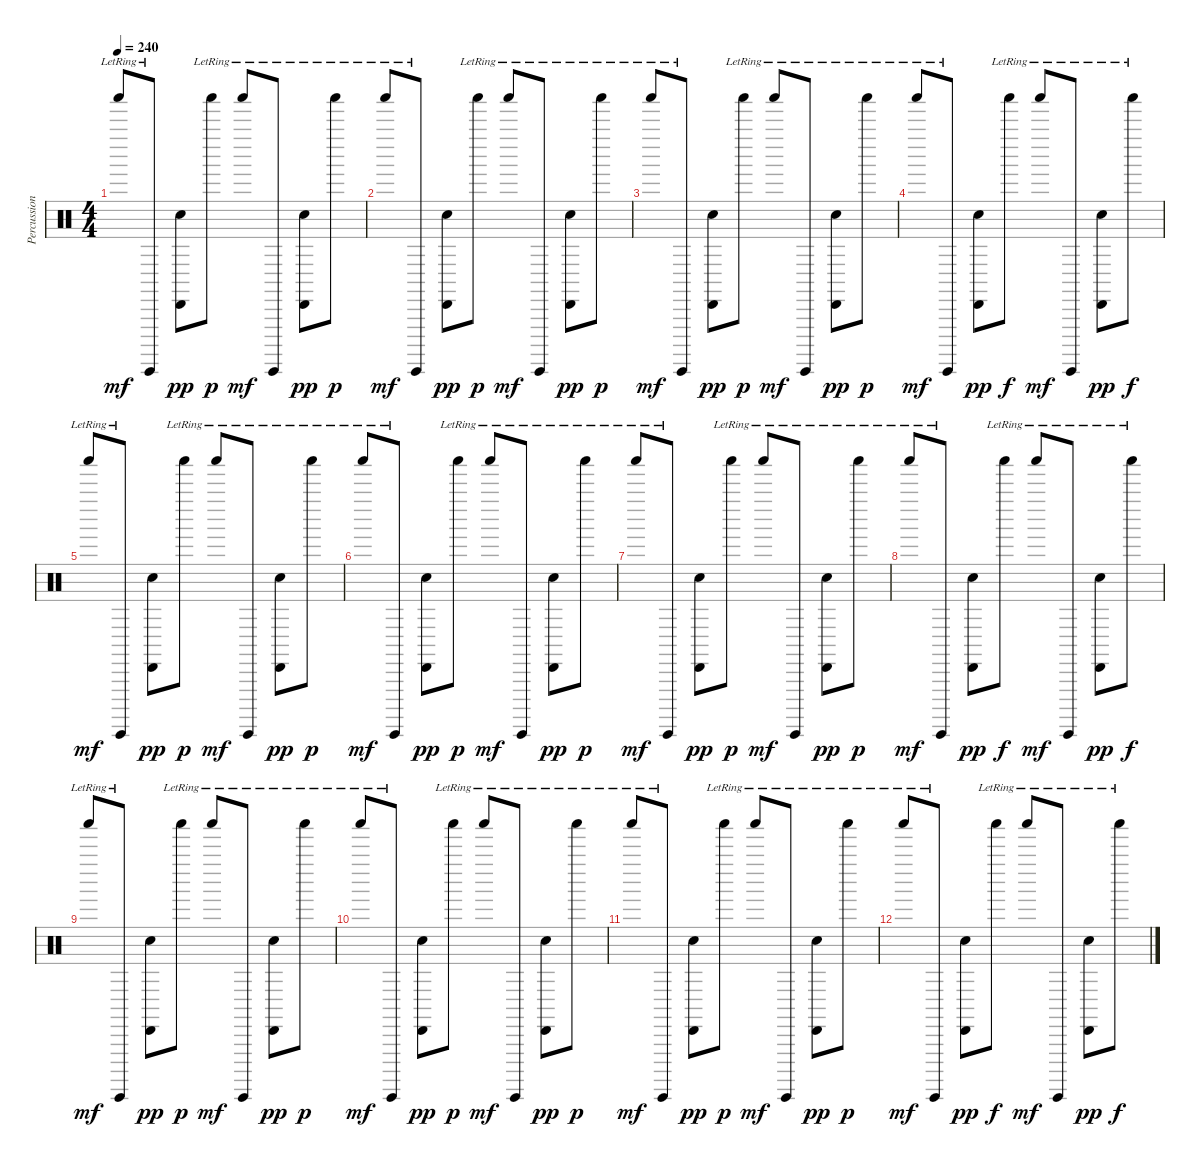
\track ("Percussions" "Percussion") {instrument percussion}
\staff {score}
\articulation defaults
\ts (4 4)
\tempo 240
\clef neutral
\ks c "Shaker (hit)"{lr}.8{dy mf} "Guiro (hit)"{lr}.8
("Cabasa (hit)" "Snare (hit) 2").8{dy pp} "Shaker (hit)"{lr}.8{dy p} "Shaker (hit)"{lr}.8{dy mf} "Guiro (hit)"{lr}.8 ("Cabasa (hit)"{lr} "Snare (hit) 2").8{dy pp} "Shaker (hit)"{lr}.8{dy p} |
"Shaker (hit)"{lr}.8{dy mf} "Guiro (hit)"{lr}.8 ("Cabasa (hit)" "Snare (hit) 2").8{dy pp} "Shaker (hit)"{lr}.8{dy p} "Shaker (hit)"{lr}.8{dy mf} "Guiro (hit)"{lr}.8 ("Cabasa (hit)"{lr} "Snare (hit) 2").8{dy pp} "Shaker (hit)"{lr}.8{dy p} |
"Shaker (hit)"{lr}.8{dy mf} "Guiro (hit)"{lr}.8 ("Cabasa (hit)" "Snare (hit) 2").8{dy pp} "Shaker (hit)"{lr}.8{dy p} "Shaker (hit)"{lr}.8{dy mf} "Guiro (hit)"{lr}.8 ("Cabasa (hit)"{lr} "Snare (hit) 2").8{dy pp} "Shaker (hit)"{lr}.8{dy p} |
"Shaker (hit)"{lr}.8{dy mf} "Guiro (hit)"{lr}.8 ("Cabasa (hit)" "Snare (hit) 2").8{dy pp} "Shaker (hit)"{lr}.8{dy f} "Shaker (hit)"{lr}.8{dy mf} "Guiro (hit)"{lr}.8 ("Cabasa (hit)"{lr} "Snare (hit) 2").8{dy pp} "Shaker (hit)"{lr}.8{dy f} |
"Shaker (hit)"{lr}.8{dy mf} "Guiro (hit)"{lr}.8 ("Cabasa (hit)" "Snare (hit) 2").8{dy pp} "Shaker (hit)"{lr}.8{dy p} "Shaker (hit)"{lr}.8{dy mf} "Guiro (hit)"{lr}.8 ("Cabasa (hit)"{lr} "Snare (hit) 2").8{dy pp} "Shaker (hit)"{lr}.8{dy p} |
"Shaker (hit)"{lr}.8{dy mf} "Guiro (hit)"{lr}.8 ("Cabasa (hit)" "Snare (hit) 2").8{dy pp} "Shaker (hit)"{lr}.8{dy p} "Shaker (hit)"{lr}.8{dy mf} "Guiro (hit)"{lr}.8 ("Cabasa (hit)"{lr} "Snare (hit) 2").8{dy pp} "Shaker (hit)"{lr}.8{dy p} |
"Shaker (hit)"{lr}.8{dy mf} "Guiro (hit)"{lr}.8 ("Cabasa (hit)" "Snare (hit) 2").8{dy pp} "Shaker (hit)"{lr}.8{dy p} "Shaker (hit)"{lr}.8{dy mf} "Guiro (hit)"{lr}.8 ("Cabasa (hit)"{lr} "Snare (hit) 2").8{dy pp} "Shaker (hit)"{lr}.8{dy p} |
"Shaker (hit)"{lr}.8{dy mf} "Guiro (hit)"{lr}.8 ("Cabasa (hit)" "Snare (hit) 2").8{dy pp} "Shaker (hit)"{lr}.8{dy f} "Shaker (hit)"{lr}.8{dy mf} "Guiro (hit)"{lr}.8 ("Cabasa (hit)"{lr} "Snare (hit) 2").8{dy pp} "Shaker (hit)"{lr}.8{dy f} |
"Shaker (hit)"{lr}.8{dy mf volume 6} "Guiro (hit)"{lr}.8 ("Cabasa (hit)" "Snare (hit) 2").8{dy pp} "Shaker (hit)"{lr}.8{dy p} "Shaker (hit)"{lr}.8{dy mf} "Guiro (hit)"{lr}.8 ("Cabasa (hit)"{lr} "Snare (hit) 2").8{dy pp} "Shaker (hit)"{lr}.8{dy p} |
"Shaker (hit)"{lr}.8{dy mf} "Guiro (hit)"{lr}.8 ("Cabasa (hit)" "Snare (hit) 2").8{dy pp} "Shaker (hit)"{lr}.8{dy p} "Shaker (hit)"{lr}.8{dy mf} "Guiro (hit)"{lr}.8 ("Cabasa (hit)"{lr} "Snare (hit) 2").8{dy pp} "Shaker (hit)"{lr}.8{dy p} |
"Shaker (hit)"{lr}.8{dy mf volume 0} "Guiro (hit)"{lr}.8 ("Cabasa (hit)" "Snare (hit) 2").8{dy pp} "Shaker (hit)"{lr}.8{dy p} "Shaker (hit)"{lr}.8{dy mf} "Guiro (hit)"{lr}.8 ("Cabasa (hit)"{lr} "Snare (hit) 2").8{dy pp} "Shaker (hit)"{lr}.8{dy p} |
"Shaker (hit)"{lr}.8{dy mf} "Guiro (hit)"{lr}.8 ("Cabasa (hit)" "Snare (hit) 2").8{dy pp} "Shaker (hit)"{lr}.8{dy f} "Shaker (hit)"{lr}.8{dy mf} "Guiro (hit)"{lr}.8 ("Cabasa (hit)"{lr} "Snare (hit) 2").8{dy pp} "Shaker (hit)"{lr}.8{dy f}
